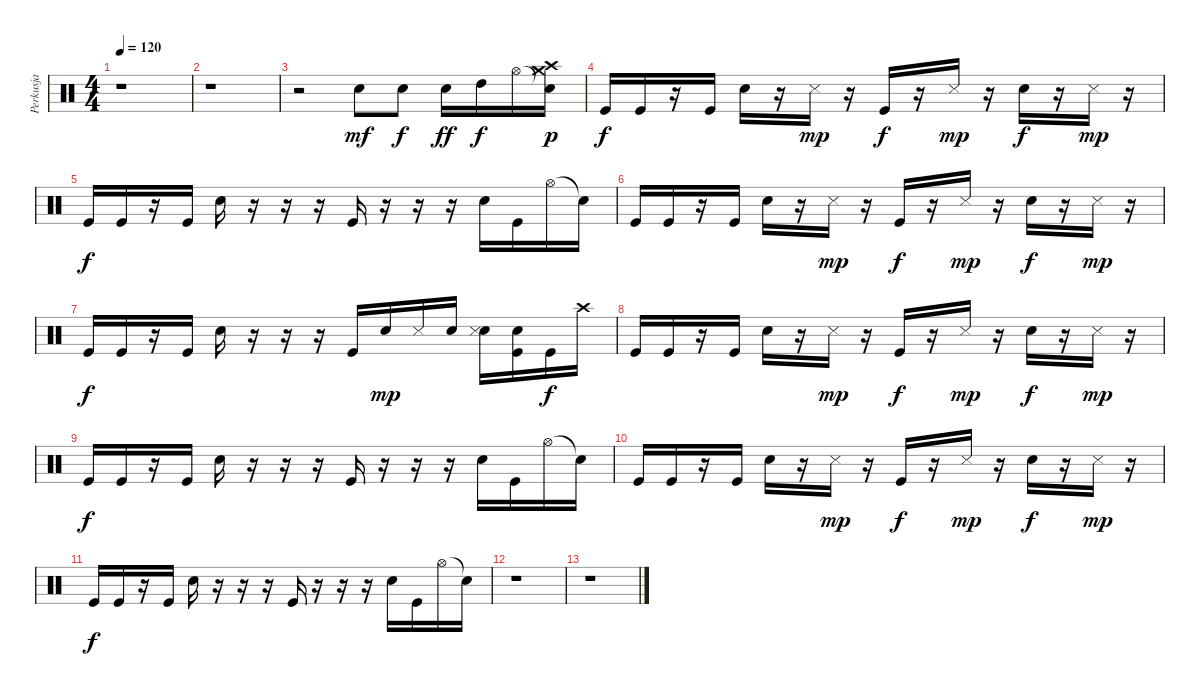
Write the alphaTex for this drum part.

\track ("Perkusja" "Perkusja") {instrument percussion}
\staff {score}
\articulation defaults
\ts (4 4)
\tempo 120
\clef neutral
\ks c
r.1{dy f} |
r.1 |
r.2 "Electric Snare (hit)".8{dy mf} "Electric Snare (hit)".8{dy f} "Electric Snare (hit)".16{dy ff} "High Tom (hit)".16{dy f} "Hi-Hat (open)".16 ("Snare (hit)"{t} "Crash high (hit)" "Crash medium (hit)").16{dy p} |
"Kick (hit)".16{dy f} "Kick (hit)".16 r.16 "Kick (hit)".16 "Snare (hit) 2".16 r.16 "Snare (side stick) 3".16{dy mp} r.16 "Kick (hit)".16{dy f} r.16 "Snare (side stick) 3".16{dy mp} r.16 "Snare (hit) 2".16{dy f} r.16 "Snare (side stick) 3".16{dy mp} r.16 |
"Kick (hit)".16{dy f} "Kick (hit)".16 r.16 "Kick (hit)".16 "Snare (hit) 2".16 r.16 r.16 r.16 "Kick (hit)".16 r.16 r.16 r.16 "Snare (hit) 2".16 "Kick (hit)".16 "Hi-Hat (open)".16 "Snare (hit)"{t}.16 |
"Kick (hit)".16 "Kick (hit)".16 r.16 "Kick (hit)".16 "Snare (hit) 2".16 r.16 "Snare (side stick) 3".16{dy mp} r.16 "Kick (hit)".16{dy f} r.16 "Snare (side stick) 3".16{dy mp} r.16 "Snare (hit) 2".16{dy f} r.16 "Snare (side stick) 3".16{dy mp} r.16 |
"Kick (hit)".16{dy f} "Kick (hit)".16 r.16 "Kick (hit)".16 "Snare (hit) 2".16 r.16 r.16 r.16 "Kick (hit)".16 "Electric Snare (hit)".16{dy mp} "Snare (side stick) 3".16 "Electric Snare (hit)".16 ("Snare (hit) 2" "Snare (side stick) 3").16 ("Kick (hit)" "Electric Snare (hit)").16 "Kick (hit)".16{dy f} "Crash high (hit)".16 |
"Kick (hit)".16 "Kick (hit)".16 r.16 "Kick (hit)".16 "Snare (hit) 2".16 r.16 "Snare (side stick) 3".16{dy mp} r.16 "Kick (hit)".16{dy f} r.16 "Snare (side stick) 3".16{dy mp} r.16 "Snare (hit) 2".16{dy f} r.16 "Snare (side stick) 3".16{dy mp} r.16 |
"Kick (hit)".16{dy f} "Kick (hit)".16 r.16 "Kick (hit)".16 "Snare (hit) 2".16 r.16 r.16 r.16 "Kick (hit)".16 r.16 r.16 r.16 "Snare (hit) 2".16 "Kick (hit)".16 "Hi-Hat (open)".16 "Snare (hit)"{t}.16 |
"Kick (hit)".16 "Kick (hit)".16 r.16 "Kick (hit)".16 "Snare (hit) 2".16 r.16 "Snare (side stick) 3".16{dy mp} r.16 "Kick (hit)".16{dy f} r.16 "Snare (side stick) 3".16{dy mp} r.16 "Snare (hit) 2".16{dy f} r.16 "Snare (side stick) 3".16{dy mp} r.16 |
"Kick (hit)".16{dy f} "Kick (hit)".16 r.16 "Kick (hit)".16 "Snare (hit) 2".16 r.16 r.16 r.16 "Kick (hit)".16 r.16 r.16 r.16 "Snare (hit) 2".16 "Kick (hit)".16 "Hi-Hat (open)".16 "Snare (hit)"{t}.16 |
r.1 |
r.1
